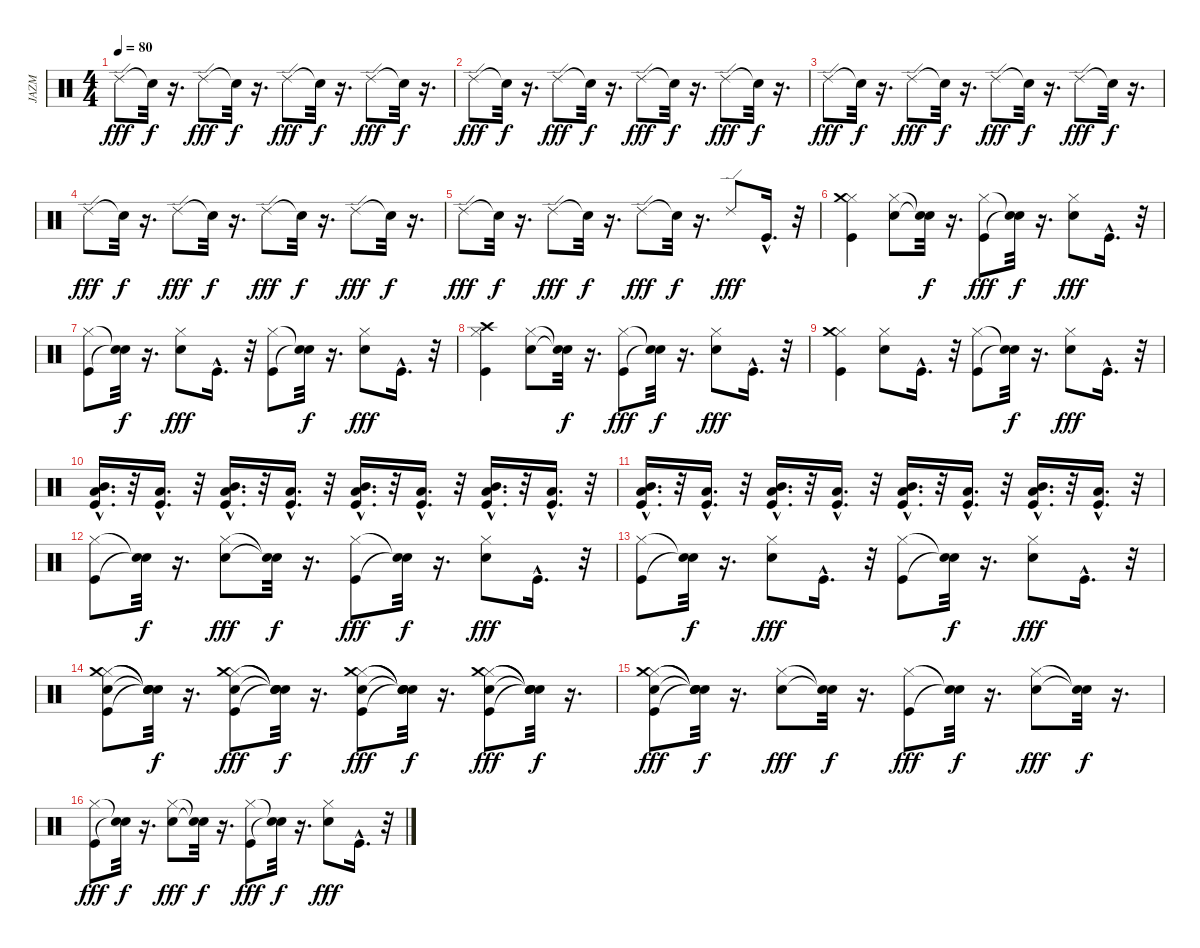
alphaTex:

\track ("JAZM" "JAZM") {instrument percussion}
\staff {score}
\articulation defaults
\ts (4 4)
\tempo 80
\clef neutral
\ks c "Ride (edge) 2".8{dy fff} "Snare (hit)"{t}.32{dy f}
r.16{d} "Ride (edge) 2".8{dy fff} "Snare (hit)"{t}.32{dy f} r.16{d} "Ride (edge) 2".8{dy fff} "Snare (hit)"{t}.32{dy f} r.16{d} "Ride (edge) 2".8{dy fff} "Snare (hit)"{t}.32{dy f} r.16{d} |
"Ride (edge) 2".8{dy fff} "Snare (hit)"{t}.32{dy f} r.16{d} "Ride (edge) 2".8{dy fff} "Snare (hit)"{t}.32{dy f} r.16{d} "Ride (edge) 2".8{dy fff} "Snare (hit)"{t}.32{dy f} r.16{d} "Ride (edge) 2".8{dy fff} "Snare (hit)"{t}.32{dy f} r.16{d} |
"Ride (edge) 2".8{dy fff} "Snare (hit)"{t}.32{dy f} r.16{d} "Ride (edge) 2".8{dy fff} "Snare (hit)"{t}.32{dy f} r.16{d} "Ride (edge) 2".8{dy fff} "Snare (hit)"{t}.32{dy f} r.16{d} "Ride (edge) 2".8{dy fff} "Snare (hit)"{t}.32{dy f} r.16{d} |
"Ride (edge) 2".8{dy fff} "Snare (hit)"{t}.32{dy f} r.16{d} "Ride (edge) 2".8{dy fff} "Snare (hit)"{t}.32{dy f} r.16{d} "Ride (edge) 2".8{dy fff} "Snare (hit)"{t}.32{dy f} r.16{d} "Ride (edge) 2".8{dy fff} "Snare (hit)"{t}.32{dy f} r.16{d} |
"Ride (edge) 2".8{dy fff} "Snare (hit)"{t}.32{dy f} r.16{d} "Ride (edge) 2".8{dy fff} "Snare (hit)"{t}.32{dy f} r.16{d} "Ride (edge) 2".8{dy fff} "Snare (hit)"{t}.32{dy f} r.16{d} "Ride (edge) 2".8{dy fff} "Kick (hit)"{hac}.16{d} r.32 |
("Hi-Hat (closed)" "Kick (hit)" "Crash medium (hit)").4 ("Hi-Hat (closed)" "Snare (hit) 2").8 ("Snare (hit)"{t} "Snare (hit)"{t}).32{dy f} r.16{d} ("Hi-Hat (closed)" "Kick (hit)").8{dy fff} ("Snare (hit)"{t} "Snare (hit)"{t}).32{dy f} r.16{d} ("Hi-Hat (closed)" "Snare (hit) 2").8{dy fff} "Kick (hit)"{hac}.16{d} r.32 |
("Hi-Hat (closed)" "Kick (hit)").8 ("Snare (hit)"{t} "Snare (hit)"{t}).32{dy f} r.16{d} ("Hi-Hat (closed)" "Snare (hit) 2").8{dy fff} "Kick (hit)"{hac}.16{d} r.32 ("Hi-Hat (closed)" "Kick (hit)").8 ("Snare (hit)"{t} "Snare (hit)"{t}).32{dy f} r.16{d} ("Hi-Hat (closed)" "Snare (hit) 2").8{dy fff} "Kick (hit)"{hac}.16{d} r.32 |
("Hi-Hat (closed)" "Kick (hit)" "Crash high (hit)").4 ("Hi-Hat (closed)" "Snare (hit) 2").8 ("Snare (hit)"{t} "Snare (hit)"{t}).32{dy f} r.16{d} ("Hi-Hat (closed)" "Kick (hit)").8{dy fff} ("Snare (hit)"{t} "Snare (hit)"{t}).32{dy f} r.16{d} ("Hi-Hat (closed)" "Snare (hit) 2").8{dy fff} "Kick (hit)"{hac}.16{d} r.32 |
("Hi-Hat (closed)" "Kick (hit)" "Crash medium (hit)").4 ("Hi-Hat (closed)" "Snare (hit) 2").8 "Kick (hit)"{hac}.16{d} r.32 ("Hi-Hat (closed)" "Kick (hit)").8 ("Snare (hit)"{t} "Snare (hit)"{t}).32{dy f} r.16{d} ("Hi-Hat (closed)" "Snare (hit) 2").8{dy fff} "Kick (hit)"{hac}.16{d} r.32 |
("Kick (hit)"{hac} "Mid Tom (hit)"{hac} "Low Tom (hit)"{hac}).16{d} r.32 ("Kick (hit)"{hac} "Low Tom (hit)"{hac}).16{d} r.32 ("Kick (hit)"{hac} "Mid Tom (hit)"{hac} "Low Tom (hit)"{hac}).16{d} r.32 ("Kick (hit)"{hac} "Low Tom (hit)"{hac}).16{d} r.32 ("Kick (hit)"{hac} "Mid Tom (hit)"{hac} "Low Tom (hit)"{hac}).16{d} r.32 ("Kick (hit)"{hac} "Low Tom (hit)"{hac}).16{d} r.32 ("Kick (hit)"{hac} "Mid Tom (hit)"{hac} "Low Tom (hit)"{hac}).16{d} r.32 ("Kick (hit)"{hac} "Low Tom (hit)"{hac}).16{d} r.32 |
("Kick (hit)"{hac} "Mid Tom (hit)"{hac} "Low Tom (hit)"{hac}).16{d} r.32 ("Kick (hit)"{hac} "Low Tom (hit)"{hac}).16{d} r.32 ("Kick (hit)"{hac} "Mid Tom (hit)"{hac} "Low Tom (hit)"{hac}).16{d} r.32 ("Kick (hit)"{hac} "Low Tom (hit)"{hac}).16{d} r.32 ("Kick (hit)"{hac} "Mid Tom (hit)"{hac} "Low Tom (hit)"{hac}).16{d} r.32 ("Kick (hit)"{hac} "Low Tom (hit)"{hac}).16{d} r.32 ("Kick (hit)"{hac} "Mid Tom (hit)"{hac} "Low Tom (hit)"{hac}).16{d} r.32 ("Kick (hit)"{hac} "Low Tom (hit)"{hac}).16{d} r.32 |
("Hi-Hat (closed)" "Kick (hit)").8 ("Snare (hit)"{t} "Snare (hit)"{t}).32{dy f} r.16{d} ("Hi-Hat (closed)" "Snare (hit) 2").8{dy fff} ("Snare (hit)"{t} "Snare (hit)"{t}).32{dy f} r.16{d} ("Hi-Hat (closed)" "Kick (hit)").8{dy fff} ("Snare (hit)"{t} "Snare (hit)"{t}).32{dy f} r.16{d} ("Hi-Hat (closed)" "Snare (hit) 2").8{dy fff} "Kick (hit)"{hac}.16{d} r.32 |
("Hi-Hat (closed)" "Kick (hit)").8 ("Snare (hit)"{t} "Snare (hit)"{t}).32{dy f} r.16{d} ("Hi-Hat (closed)" "Snare (hit) 2").8{dy fff} "Kick (hit)"{hac}.16{d} r.32 ("Hi-Hat (closed)" "Kick (hit)").8 ("Snare (hit)"{t} "Snare (hit)"{t}).32{dy f} r.16{d} ("Hi-Hat (closed)" "Snare (hit) 2").8{dy fff} "Kick (hit)"{hac}.16{d} r.32 |
("Hi-Hat (closed)" "Kick (hit)" "Crash medium (hit)" "Snare (hit) 2").8 ("Snare (hit)"{t} "Snare (hit)"{t} "Snare (hit)"{t} "Snare (hit)"{t}).32{dy f} r.16{d} ("Hi-Hat (closed)" "Snare (hit) 2" "Kick (hit)" "Crash medium (hit)").8{dy fff} ("Snare (hit)"{t} "Snare (hit)"{t} "Snare (hit)"{t} "Snare (hit)"{t}).32{dy f} r.16{d} ("Hi-Hat (closed)" "Kick (hit)" "Snare (hit) 2" "Crash medium (hit)").8{dy fff} ("Snare (hit)"{t} "Snare (hit)"{t} "Snare (hit)"{t} "Snare (hit)"{t}).32{dy f} r.16{d} ("Hi-Hat (closed)" "Snare (hit) 2" "Kick (hit)" "Crash medium (hit)").8{dy fff} ("Snare (hit)"{t} "Snare (hit)"{t} "Snare (hit)"{t} "Snare (hit)"{t}).32{dy f} r.16{d} |
("Hi-Hat (closed)" "Kick (hit)" "Crash medium (hit)" "Snare (hit) 2").8{dy fff} ("Snare (hit)"{t} "Snare (hit)"{t} "Snare (hit)"{t} "Snare (hit)"{t}).32{dy f} r.16{d} ("Hi-Hat (closed)" "Snare (hit) 2").8{dy fff} ("Snare (hit)"{t} "Snare (hit)"{t}).32{dy f} r.16{d} ("Hi-Hat (closed)" "Kick (hit)").8{dy fff} ("Snare (hit)"{t} "Snare (hit)"{t}).32{dy f} r.16{d} ("Hi-Hat (closed)" "Snare (hit) 2").8{dy fff} ("Snare (hit)"{t} "Snare (hit)"{t}).32{dy f} r.16{d} |
("Hi-Hat (closed)" "Kick (hit)").8{dy fff} ("Snare (hit)"{t} "Snare (hit)"{t}).32{dy f} r.16{d} ("Hi-Hat (closed)" "Snare (hit) 2").8{dy fff} ("Snare (hit)"{t} "Snare (hit)"{t}).32{dy f} r.16{d} ("Hi-Hat (closed)" "Kick (hit)").8{dy fff} ("Snare (hit)"{t} "Snare (hit)"{t}).32{dy f} r.16{d} ("Hi-Hat (closed)" "Snare (hit) 2").8{dy fff} "Kick (hit)"{hac}.16{d} r.32
